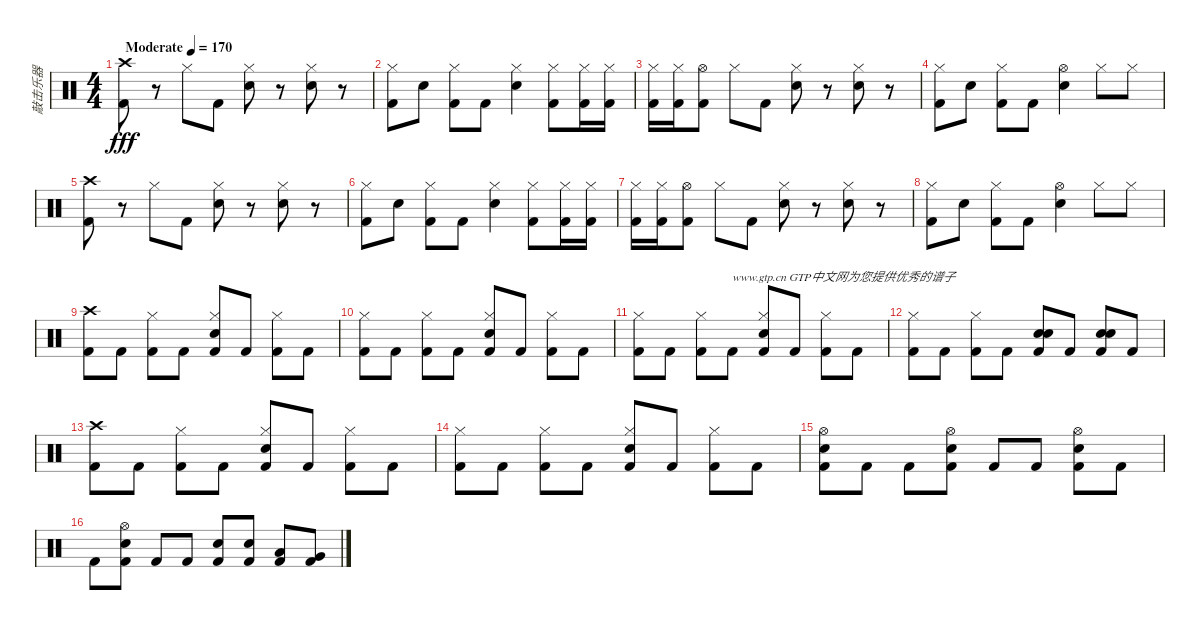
\track ("敲击乐器" "敲击乐器") {instrument percussion}
\staff {score}
\articulation defaults
\ts (4 4)
\tempo (170 "Moderate")
\clef neutral
\ks c
("Crash high (hit)" "Kick (hit) 2").8{dy fff} r.8 "Hi-Hat (closed)".8 "Kick (hit) 2".8 ("Hi-Hat (closed)" "Electric Snare (hit)").8 r.8 ("Hi-Hat (closed)" "Electric Snare (hit)").8 r.8 |
("Hi-Hat (closed)" "Kick (hit) 2").8 "Electric Snare (hit)".8 ("Hi-Hat (closed)" "Kick (hit) 2").8 "Kick (hit) 2".8 ("Hi-Hat (closed)" "Electric Snare (hit)").4 ("Hi-Hat (closed)" "Kick (hit) 2").8 ("Hi-Hat (closed)" "Kick (hit) 2").16 ("Hi-Hat (closed)" "Kick (hit) 2").16 |
("Hi-Hat (closed)" "Kick (hit) 2").16 ("Hi-Hat (closed)" "Kick (hit) 2").16 ("Hi-Hat (open)" "Kick (hit) 2").8 "Hi-Hat (closed)".8 "Kick (hit) 2".8 ("Hi-Hat (closed)" "Electric Snare (hit)").8 r.8 ("Hi-Hat (closed)" "Electric Snare (hit)").8 r.8 |
("Hi-Hat (closed)" "Kick (hit) 2").8 "Electric Snare (hit)".8 ("Hi-Hat (closed)" "Kick (hit) 2").8 "Kick (hit) 2".8 ("Hi-Hat (open)" "Electric Snare (hit)").4 "Hi-Hat (closed)".8 "Hi-Hat (closed)".8 |
("Crash high (hit)" "Kick (hit) 2").8 r.8 "Hi-Hat (closed)".8 "Kick (hit) 2".8 ("Hi-Hat (closed)" "Electric Snare (hit)").8 r.8 ("Hi-Hat (closed)" "Electric Snare (hit)").8 r.8 |
("Hi-Hat (closed)" "Kick (hit) 2").8 "Electric Snare (hit)".8 ("Hi-Hat (closed)" "Kick (hit) 2").8 "Kick (hit) 2".8 ("Hi-Hat (closed)" "Electric Snare (hit)").4 ("Hi-Hat (closed)" "Kick (hit) 2").8 ("Hi-Hat (closed)" "Kick (hit) 2").16 ("Hi-Hat (closed)" "Kick (hit) 2").16 |
("Hi-Hat (closed)" "Kick (hit) 2").16 ("Hi-Hat (closed)" "Kick (hit) 2").16 ("Hi-Hat (open)" "Kick (hit) 2").8 "Hi-Hat (closed)".8 "Kick (hit) 2".8 ("Hi-Hat (closed)" "Electric Snare (hit)").8 r.8 ("Hi-Hat (closed)" "Electric Snare (hit)").8 r.8 |
("Hi-Hat (closed)" "Kick (hit) 2").8 "Electric Snare (hit)".8 ("Hi-Hat (closed)" "Kick (hit) 2").8 "Kick (hit) 2".8 ("Hi-Hat (open)" "Electric Snare (hit)").4 "Hi-Hat (closed)".8 "Hi-Hat (closed)".8 |
("Crash high (hit)" "Kick (hit) 2").8 "Kick (hit) 2".8 ("Hi-Hat (closed)" "Kick (hit) 2").8 "Kick (hit) 2".8 ("Hi-Hat (closed)" "Electric Snare (hit)" "Kick (hit) 2").8 "Kick (hit) 2".8 ("Hi-Hat (closed)" "Kick (hit) 2").8 "Kick (hit) 2".8 |
("Hi-Hat (closed)" "Kick (hit) 2").8 "Kick (hit) 2".8 ("Hi-Hat (closed)" "Kick (hit) 2").8 "Kick (hit) 2".8 ("Hi-Hat (closed)" "Electric Snare (hit)" "Kick (hit) 2").8 "Kick (hit) 2".8 ("Hi-Hat (closed)" "Kick (hit) 2").8 "Kick (hit) 2".8 |
("Hi-Hat (closed)" "Kick (hit) 2").8 "Kick (hit) 2".8 ("Hi-Hat (closed)" "Kick (hit) 2").8 "Kick (hit) 2".8{txt "www.gtp.cn GTP中文网为您提供优秀的谱子"} ("Hi-Hat (closed)" "Electric Snare (hit)" "Kick (hit) 2").8 "Kick (hit) 2".8 ("Hi-Hat (closed)" "Kick (hit) 2").8 "Kick (hit) 2".8 |
("Hi-Hat (closed)" "Kick (hit) 2").8 "Kick (hit) 2".8 ("Hi-Hat (closed)" "Kick (hit) 2").8 "Kick (hit) 2".8 ("Electric Snare (hit)" "Electric Snare (hit)" "Kick (hit) 2").8 "Kick (hit) 2".8 ("Electric Snare (hit)" "Electric Snare (hit)" "Kick (hit) 2").8 "Kick (hit) 2".8 |
("Crash high (hit)" "Kick (hit) 2").8 "Kick (hit) 2".8 ("Hi-Hat (closed)" "Kick (hit) 2").8 "Kick (hit) 2".8 ("Hi-Hat (closed)" "Electric Snare (hit)" "Kick (hit) 2").8 "Kick (hit) 2".8 ("Hi-Hat (closed)" "Kick (hit) 2").8 "Kick (hit) 2".8 |
("Hi-Hat (closed)" "Kick (hit) 2").8 "Kick (hit) 2".8 ("Hi-Hat (closed)" "Kick (hit) 2").8 "Kick (hit) 2".8 ("Hi-Hat (closed)" "Electric Snare (hit)" "Kick (hit) 2").8 "Kick (hit) 2".8 ("Hi-Hat (closed)" "Kick (hit) 2").8 "Kick (hit) 2".8 |
("Hi-Hat (open)" "Electric Snare (hit)" "Kick (hit) 2").8 "Kick (hit) 2".8 "Kick (hit) 2".8 ("Hi-Hat (open)" "Electric Snare (hit)" "Kick (hit) 2").8 "Kick (hit) 2".8 "Kick (hit) 2".8 ("Hi-Hat (open)" "Electric Snare (hit)" "Kick (hit) 2").8 "Kick (hit) 2".8 |
"Kick (hit) 2".8 ("Hi-Hat (open)" "Electric Snare (hit)" "Kick (hit) 2").8 "Kick (hit) 2".8 "Kick (hit) 2".8 ("Electric Snare (hit)" "Kick (hit) 2").8 ("Electric Snare (hit)" "Kick (hit) 2").8 ("Low Tom (hit)" "Kick (hit) 2").8 ("Very Low Tom (hit)" "Kick (hit) 2").8
